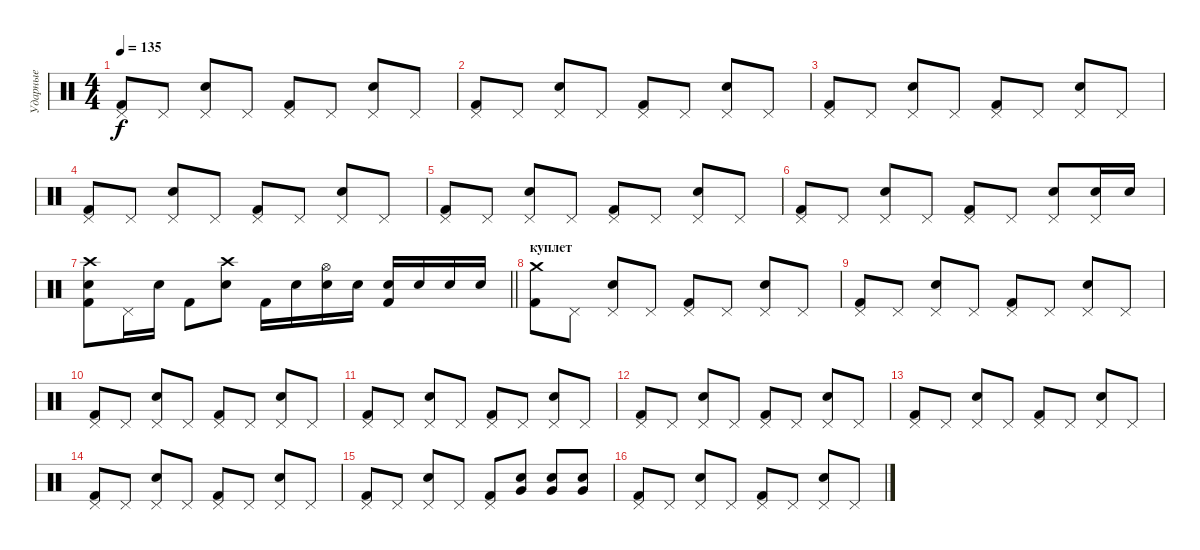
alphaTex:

\track ("Ударные" "Ударные") {instrument percussion}
\staff {score}
\articulation defaults
\ts (4 4)
\tempo 135
\clef neutral
\ks c
("Pedal Hi-Hat (hit)" "Kick (hit) 2").8{dy f} "Pedal Hi-Hat (hit)".8 ("Pedal Hi-Hat (hit)" "Electric Snare (hit)").8 "Pedal Hi-Hat (hit)".8 ("Pedal Hi-Hat (hit)" "Kick (hit) 2").8 "Pedal Hi-Hat (hit)".8 ("Pedal Hi-Hat (hit)" "Electric Snare (hit)").8 "Pedal Hi-Hat (hit)".8 |
("Pedal Hi-Hat (hit)" "Kick (hit) 2").8 "Pedal Hi-Hat (hit)".8 ("Pedal Hi-Hat (hit)" "Electric Snare (hit)").8 "Pedal Hi-Hat (hit)".8 ("Pedal Hi-Hat (hit)" "Kick (hit) 2").8 "Pedal Hi-Hat (hit)".8 ("Pedal Hi-Hat (hit)" "Electric Snare (hit)").8 "Pedal Hi-Hat (hit)".8 |
("Pedal Hi-Hat (hit)" "Kick (hit) 2").8 "Pedal Hi-Hat (hit)".8 ("Pedal Hi-Hat (hit)" "Electric Snare (hit)").8 "Pedal Hi-Hat (hit)".8 ("Pedal Hi-Hat (hit)" "Kick (hit) 2").8 "Pedal Hi-Hat (hit)".8 ("Pedal Hi-Hat (hit)" "Electric Snare (hit)").8 "Pedal Hi-Hat (hit)".8 |
("Pedal Hi-Hat (hit)" "Kick (hit) 2").8 "Pedal Hi-Hat (hit)".8 ("Pedal Hi-Hat (hit)" "Electric Snare (hit)").8 "Pedal Hi-Hat (hit)".8 ("Pedal Hi-Hat (hit)" "Kick (hit) 2").8 "Pedal Hi-Hat (hit)".8 ("Pedal Hi-Hat (hit)" "Electric Snare (hit)").8 "Pedal Hi-Hat (hit)".8 |
("Pedal Hi-Hat (hit)" "Kick (hit) 2").8 "Pedal Hi-Hat (hit)".8 ("Pedal Hi-Hat (hit)" "Electric Snare (hit)").8 "Pedal Hi-Hat (hit)".8 ("Pedal Hi-Hat (hit)" "Kick (hit) 2").8 "Pedal Hi-Hat (hit)".8 ("Pedal Hi-Hat (hit)" "Electric Snare (hit)").8 "Pedal Hi-Hat (hit)".8 |
("Pedal Hi-Hat (hit)" "Kick (hit) 2").8 "Pedal Hi-Hat (hit)".8 ("Pedal Hi-Hat (hit)" "Electric Snare (hit)").8 "Pedal Hi-Hat (hit)".8 ("Pedal Hi-Hat (hit)" "Kick (hit) 2").8 "Pedal Hi-Hat (hit)".8 ("Pedal Hi-Hat (hit)" "Electric Snare (hit)").8 ("Pedal Hi-Hat (hit)" "Electric Snare (hit)").16 "Electric Snare (hit)".16 |
\barLineRight lightlight
("Electric Snare (hit)" "Crash high (hit)" "Kick (hit) 2").8 "Pedal Hi-Hat (hit)".16 "Electric Snare (hit)".16 "Kick (hit) 2".8 ("Electric Snare (hit)" "Crash high (hit)").8 "Kick (hit) 2".16 "Electric Snare (hit)".16 ("Electric Snare (hit)" "Hi-Hat (open)").16 "Electric Snare (hit)".16 ("Electric Snare (hit)" "Kick (hit) 2").16 "Electric Snare (hit)".16 "Electric Snare (hit)".16 "Electric Snare (hit)".16 |
\section ("" "куплет")
("Crash medium (hit)" "Kick (hit) 2").8 "Pedal Hi-Hat (hit)".8 ("Pedal Hi-Hat (hit)" "Electric Snare (hit)").8 "Pedal Hi-Hat (hit)".8 ("Pedal Hi-Hat (hit)" "Kick (hit) 2").8 "Pedal Hi-Hat (hit)".8 ("Pedal Hi-Hat (hit)" "Electric Snare (hit)").8 "Pedal Hi-Hat (hit)".8 |
("Pedal Hi-Hat (hit)" "Kick (hit) 2").8 "Pedal Hi-Hat (hit)".8 ("Pedal Hi-Hat (hit)" "Electric Snare (hit)").8 "Pedal Hi-Hat (hit)".8 ("Pedal Hi-Hat (hit)" "Kick (hit) 2").8 "Pedal Hi-Hat (hit)".8 ("Pedal Hi-Hat (hit)" "Electric Snare (hit)").8 "Pedal Hi-Hat (hit)".8 |
("Pedal Hi-Hat (hit)" "Kick (hit) 2").8 "Pedal Hi-Hat (hit)".8 ("Pedal Hi-Hat (hit)" "Electric Snare (hit)").8 "Pedal Hi-Hat (hit)".8 ("Pedal Hi-Hat (hit)" "Kick (hit) 2").8 "Pedal Hi-Hat (hit)".8 ("Pedal Hi-Hat (hit)" "Electric Snare (hit)").8 "Pedal Hi-Hat (hit)".8 |
("Pedal Hi-Hat (hit)" "Kick (hit) 2").8 "Pedal Hi-Hat (hit)".8 ("Pedal Hi-Hat (hit)" "Electric Snare (hit)").8 "Pedal Hi-Hat (hit)".8 ("Pedal Hi-Hat (hit)" "Kick (hit) 2").8 "Pedal Hi-Hat (hit)".8 ("Pedal Hi-Hat (hit)" "Electric Snare (hit)").8 "Pedal Hi-Hat (hit)".8 |
("Pedal Hi-Hat (hit)" "Kick (hit) 2").8 "Pedal Hi-Hat (hit)".8 ("Pedal Hi-Hat (hit)" "Electric Snare (hit)").8 "Pedal Hi-Hat (hit)".8 ("Pedal Hi-Hat (hit)" "Kick (hit) 2").8 "Pedal Hi-Hat (hit)".8 ("Pedal Hi-Hat (hit)" "Electric Snare (hit)").8 "Pedal Hi-Hat (hit)".8 |
("Pedal Hi-Hat (hit)" "Kick (hit) 2").8 "Pedal Hi-Hat (hit)".8 ("Pedal Hi-Hat (hit)" "Electric Snare (hit)").8 "Pedal Hi-Hat (hit)".8 ("Pedal Hi-Hat (hit)" "Kick (hit) 2").8 "Pedal Hi-Hat (hit)".8 ("Pedal Hi-Hat (hit)" "Electric Snare (hit)").8 "Pedal Hi-Hat (hit)".8 |
("Pedal Hi-Hat (hit)" "Kick (hit) 2").8 "Pedal Hi-Hat (hit)".8 ("Pedal Hi-Hat (hit)" "Electric Snare (hit)").8 "Pedal Hi-Hat (hit)".8 ("Pedal Hi-Hat (hit)" "Kick (hit) 2").8 "Pedal Hi-Hat (hit)".8 ("Pedal Hi-Hat (hit)" "Electric Snare (hit)").8 "Pedal Hi-Hat (hit)".8 |
("Pedal Hi-Hat (hit)" "Kick (hit) 2").8 "Pedal Hi-Hat (hit)".8 ("Pedal Hi-Hat (hit)" "Electric Snare (hit)").8 "Pedal Hi-Hat (hit)".8 ("Pedal Hi-Hat (hit)" "Kick (hit) 2").8 ("Electric Snare (hit)" "Very Low Tom (hit)").8 ("Electric Snare (hit)" "Very Low Tom (hit)").8 ("Electric Snare (hit)" "Very Low Tom (hit)").8 |
("Pedal Hi-Hat (hit)" "Kick (hit) 2").8 "Pedal Hi-Hat (hit)".8 ("Pedal Hi-Hat (hit)" "Electric Snare (hit)").8 "Pedal Hi-Hat (hit)".8 ("Pedal Hi-Hat (hit)" "Kick (hit) 2").8 "Pedal Hi-Hat (hit)".8 ("Pedal Hi-Hat (hit)" "Electric Snare (hit)").8 "Pedal Hi-Hat (hit)".8
